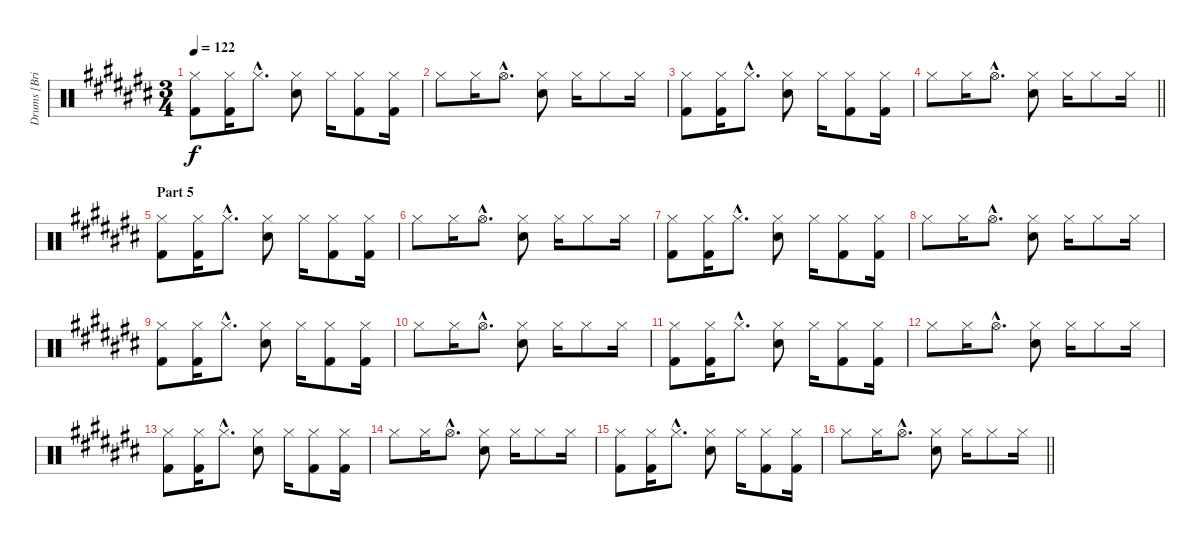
\track ("Drums [Brian \"Brain\" Mantia]" "Drums [Bri") {instrument percussion}
\staff {score}
\articulation defaults
\ts (3 4)
\tempo 122
\clef neutral
\ks c#
("Hi-Hat (closed)" "Kick (hit) 2").8{dy f} ("Hi-Hat (closed)" "Kick (hit) 2").16 "Hi-Hat (closed)"{hac}.8{d} ("Hi-Hat (closed)" "Electric Snare (hit)").8 "Hi-Hat (closed)".16 ("Hi-Hat (closed)" "Kick (hit) 2").8 ("Hi-Hat (closed)" "Kick (hit) 2").16 |
"Hi-Hat (closed)".8 "Hi-Hat (closed)".16 "Hi-Hat (open)"{hac}.8{d} ("Hi-Hat (closed)" "Electric Snare (hit)").8 "Hi-Hat (closed)".16 "Hi-Hat (closed)".8 "Hi-Hat (closed)".16 |
("Hi-Hat (closed)" "Kick (hit) 2").8 ("Hi-Hat (closed)" "Kick (hit) 2").16 "Hi-Hat (closed)"{hac}.8{d} ("Hi-Hat (closed)" "Electric Snare (hit)").8 "Hi-Hat (closed)".16 ("Hi-Hat (closed)" "Kick (hit) 2").8 ("Hi-Hat (closed)" "Kick (hit) 2").16 |
\barLineRight lightlight "Hi-Hat (closed)".8 "Hi-Hat (closed)".16 "Hi-Hat (open)"{hac}.8{d}
("Hi-Hat (closed)" "Electric Snare (hit)").8 "Hi-Hat (closed)".16 "Hi-Hat (closed)".8 "Hi-Hat (closed)".16 |
\section ("" "Part 5")
("Hi-Hat (closed)" "Kick (hit) 2").8 ("Hi-Hat (closed)" "Kick (hit) 2").16 "Hi-Hat (closed)"{hac}.8{d} ("Hi-Hat (closed)" "Electric Snare (hit)").8 "Hi-Hat (closed)".16 ("Hi-Hat (closed)" "Kick (hit) 2").8 ("Hi-Hat (closed)" "Kick (hit) 2").16 |
"Hi-Hat (closed)".8 "Hi-Hat (closed)".16 "Hi-Hat (open)"{hac}.8{d} ("Hi-Hat (closed)" "Electric Snare (hit)").8 "Hi-Hat (closed)".16 "Hi-Hat (closed)".8 "Hi-Hat (closed)".16 |
("Hi-Hat (closed)" "Kick (hit) 2").8 ("Hi-Hat (closed)" "Kick (hit) 2").16 "Hi-Hat (closed)"{hac}.8{d} ("Hi-Hat (closed)" "Electric Snare (hit)").8 "Hi-Hat (closed)".16 ("Hi-Hat (closed)" "Kick (hit) 2").8 ("Hi-Hat (closed)" "Kick (hit) 2").16 |
"Hi-Hat (closed)".8 "Hi-Hat (closed)".16 "Hi-Hat (open)"{hac}.8{d} ("Hi-Hat (closed)" "Electric Snare (hit)").8 "Hi-Hat (closed)".16 "Hi-Hat (closed)".8 "Hi-Hat (closed)".16 |
("Hi-Hat (closed)" "Kick (hit) 2").8 ("Hi-Hat (closed)" "Kick (hit) 2").16 "Hi-Hat (closed)"{hac}.8{d} ("Hi-Hat (closed)" "Electric Snare (hit)").8 "Hi-Hat (closed)".16 ("Hi-Hat (closed)" "Kick (hit) 2").8 ("Hi-Hat (closed)" "Kick (hit) 2").16 |
"Hi-Hat (closed)".8 "Hi-Hat (closed)".16 "Hi-Hat (open)"{hac}.8{d} ("Hi-Hat (closed)" "Electric Snare (hit)").8 "Hi-Hat (closed)".16 "Hi-Hat (closed)".8 "Hi-Hat (closed)".16 |
("Hi-Hat (closed)" "Kick (hit) 2").8 ("Hi-Hat (closed)" "Kick (hit) 2").16 "Hi-Hat (closed)"{hac}.8{d} ("Hi-Hat (closed)" "Electric Snare (hit)").8 "Hi-Hat (closed)".16 ("Hi-Hat (closed)" "Kick (hit) 2").8 ("Hi-Hat (closed)" "Kick (hit) 2").16 |
"Hi-Hat (closed)".8 "Hi-Hat (closed)".16 "Hi-Hat (open)"{hac}.8{d} ("Hi-Hat (closed)" "Electric Snare (hit)").8 "Hi-Hat (closed)".16 "Hi-Hat (closed)".8 "Hi-Hat (closed)".16 |
("Hi-Hat (closed)" "Kick (hit) 2").8 ("Hi-Hat (closed)" "Kick (hit) 2").16 "Hi-Hat (closed)"{hac}.8{d} ("Hi-Hat (closed)" "Electric Snare (hit)").8 "Hi-Hat (closed)".16 ("Hi-Hat (closed)" "Kick (hit) 2").8 ("Hi-Hat (closed)" "Kick (hit) 2").16 |
"Hi-Hat (closed)".8 "Hi-Hat (closed)".16 "Hi-Hat (open)"{hac}.8{d} ("Hi-Hat (closed)" "Electric Snare (hit)").8 "Hi-Hat (closed)".16 "Hi-Hat (closed)".8 "Hi-Hat (closed)".16 |
("Hi-Hat (closed)" "Kick (hit) 2").8 ("Hi-Hat (closed)" "Kick (hit) 2").16 "Hi-Hat (closed)"{hac}.8{d} ("Hi-Hat (closed)" "Electric Snare (hit)").8 "Hi-Hat (closed)".16 ("Hi-Hat (closed)" "Kick (hit) 2").8 ("Hi-Hat (closed)" "Kick (hit) 2").16 |
\barLineRight lightlight "Hi-Hat (closed)".8 "Hi-Hat (closed)".16 "Hi-Hat (open)"{hac}.8{d}
("Hi-Hat (closed)" "Electric Snare (hit)").8 "Hi-Hat (closed)".16 "Hi-Hat (closed)".8 "Hi-Hat (closed)".16
